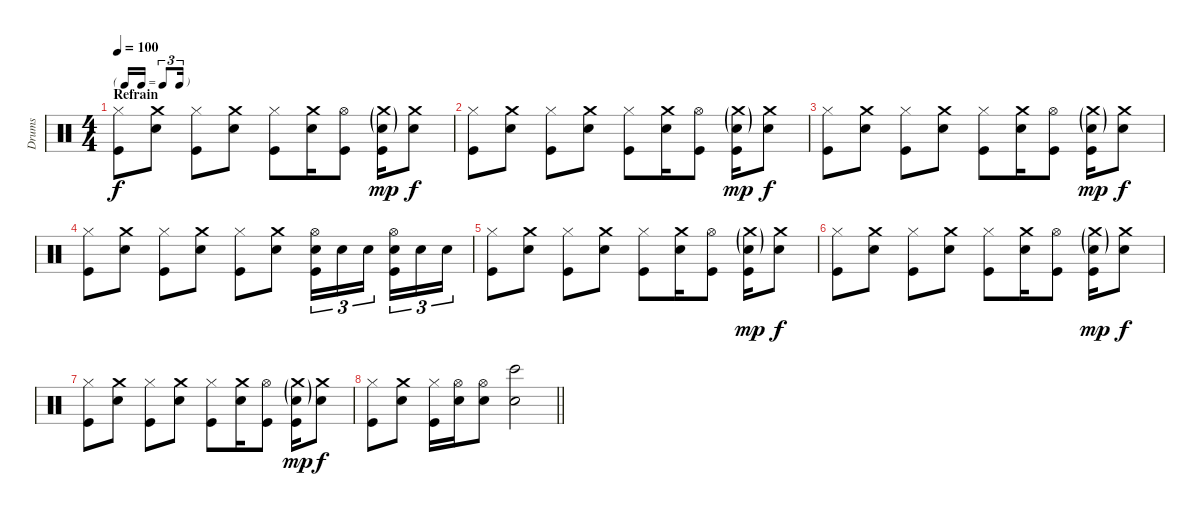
\track ("Drums" "Drums") {instrument percussion}
\staff {score}
\articulation defaults
\ts (4 4)
\tf triplet16th
\section ("" "Refrain")
\tempo 100
\clef neutral
\ks c
("Hi-Hat (closed)" "Kick (hit)").8{dy f} ("Crash medium (hit)" "Electric Snare (hit)").8 ("Hi-Hat (closed)" "Kick (hit)").8 ("Crash medium (hit)" "Electric Snare (hit)").8 ("Hi-Hat (closed)" "Kick (hit)").8 ("Crash medium (hit)" "Electric Snare (hit)").16 ("Hi-Hat (open)" "Kick (hit)").8 ("Crash medium (hit)"{g} "Electric Snare (hit)"{g} "Kick (hit)").16{dy mp} ("Crash medium (hit)" "Electric Snare (hit)").8{dy f} |
("Hi-Hat (closed)" "Kick (hit)").8 ("Crash medium (hit)" "Electric Snare (hit)").8 ("Hi-Hat (closed)" "Kick (hit)").8 ("Crash medium (hit)" "Electric Snare (hit)").8 ("Hi-Hat (closed)" "Kick (hit)").8 ("Crash medium (hit)" "Electric Snare (hit)").16 ("Hi-Hat (open)" "Kick (hit)").8 ("Crash medium (hit)"{g} "Electric Snare (hit)"{g} "Kick (hit)").16{dy mp} ("Crash medium (hit)" "Electric Snare (hit)").8{dy f} |
("Hi-Hat (closed)" "Kick (hit)").8 ("Crash medium (hit)" "Electric Snare (hit)").8 ("Hi-Hat (closed)" "Kick (hit)").8 ("Crash medium (hit)" "Electric Snare (hit)").8 ("Hi-Hat (closed)" "Kick (hit)").8 ("Crash medium (hit)" "Electric Snare (hit)").16 ("Hi-Hat (open)" "Kick (hit)").8 ("Crash medium (hit)"{g} "Electric Snare (hit)"{g} "Kick (hit)").16{dy mp} ("Crash medium (hit)" "Electric Snare (hit)").8{dy f} |
("Hi-Hat (closed)" "Kick (hit)").8 ("Crash medium (hit)" "Electric Snare (hit)").8 ("Hi-Hat (closed)" "Kick (hit)").8 ("Crash medium (hit)" "Electric Snare (hit)").8 ("Hi-Hat (closed)" "Kick (hit)").8 ("Crash medium (hit)" "Electric Snare (hit)").8 ("Hi-Hat (open)" "Electric Snare (hit)" "Kick (hit)").16{tu (3 2)} "Electric Snare (hit)".16{tu (3 2)} "Electric Snare (hit)".16{tu (3 2) beam splitsecondary} ("Hi-Hat (open)" "Electric Snare (hit)" "Kick (hit)").16{tu (3 2)} "Electric Snare (hit)".16{tu (3 2)} "Electric Snare (hit)".16{tu (3 2)} |
("Hi-Hat (closed)" "Kick (hit)").8 ("Crash medium (hit)" "Electric Snare (hit)").8 ("Hi-Hat (closed)" "Kick (hit)").8 ("Crash medium (hit)" "Electric Snare (hit)").8 ("Hi-Hat (closed)" "Kick (hit)").8 ("Crash medium (hit)" "Electric Snare (hit)").16 ("Hi-Hat (open)" "Kick (hit)").8 ("Crash medium (hit)"{g} "Electric Snare (hit)"{g} "Kick (hit)").16{dy mp} ("Crash medium (hit)" "Electric Snare (hit)").8{dy f} |
("Hi-Hat (closed)" "Kick (hit)").8 ("Crash medium (hit)" "Electric Snare (hit)").8 ("Hi-Hat (closed)" "Kick (hit)").8 ("Crash medium (hit)" "Electric Snare (hit)").8 ("Hi-Hat (closed)" "Kick (hit)").8 ("Crash medium (hit)" "Electric Snare (hit)").16 ("Hi-Hat (open)" "Kick (hit)").8 ("Crash medium (hit)"{g} "Electric Snare (hit)"{g} "Kick (hit)").16{dy mp} ("Crash medium (hit)" "Electric Snare (hit)").8{dy f} |
("Hi-Hat (closed)" "Kick (hit)").8 ("Crash medium (hit)" "Electric Snare (hit)").8 ("Hi-Hat (closed)" "Kick (hit)").8 ("Crash medium (hit)" "Electric Snare (hit)").8 ("Hi-Hat (closed)" "Kick (hit)").8 ("Crash medium (hit)" "Electric Snare (hit)").16 ("Hi-Hat (open)" "Kick (hit)").8 ("Crash medium (hit)"{g} "Electric Snare (hit)"{g} "Kick (hit)").16{dy mp} ("Crash medium (hit)" "Electric Snare (hit)").8{dy f} |
\barLineRight lightlight
("Hi-Hat (closed)" "Kick (hit)").8 ("Crash medium (hit)" "Electric Snare (hit)").8 ("Hi-Hat (closed)" "Kick (hit)").16 ("Hi-Hat (open)" "Electric Snare (hit)").16 ("Hi-Hat (open)" "Electric Snare (hit)").8 ("Bongo High (hit)" "Hand Clap (hit)").2
